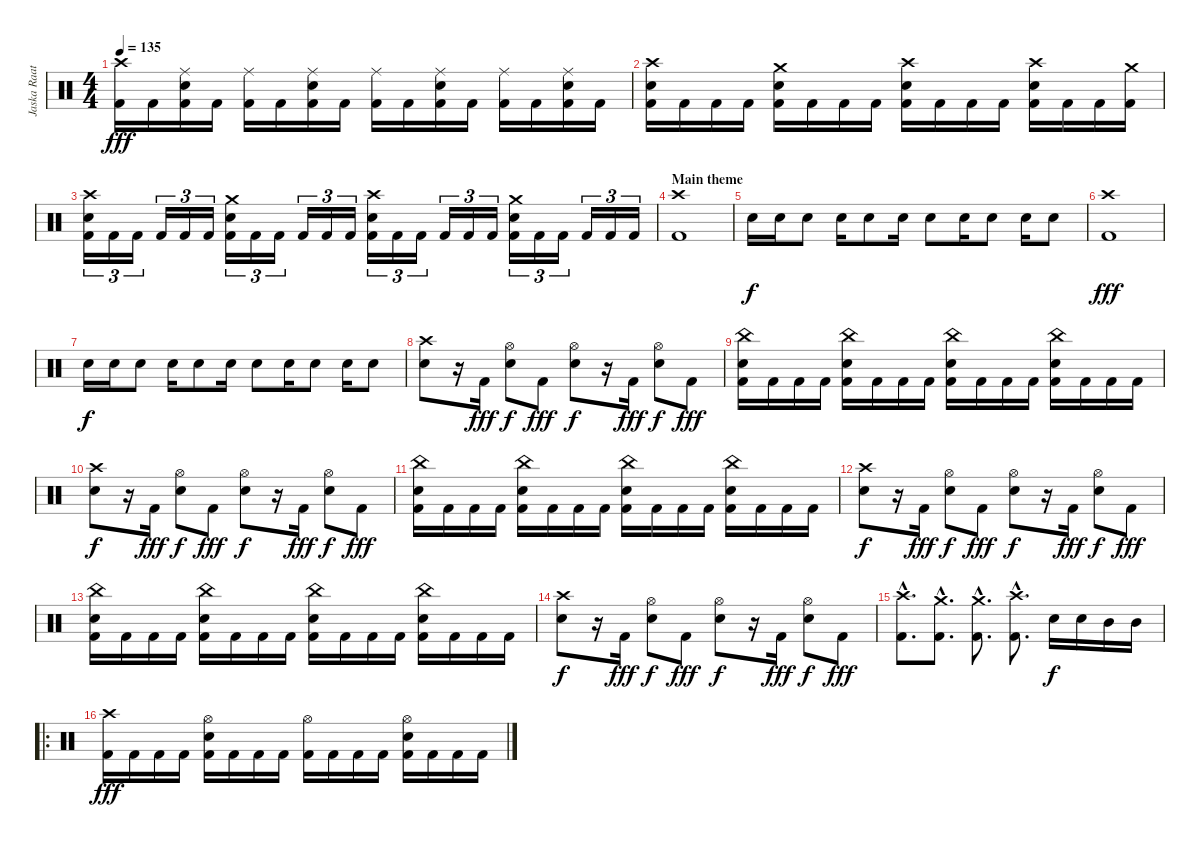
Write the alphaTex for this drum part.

\track ("Jaska Raatikainen" "Jaska Raat") {instrument percussion}
\staff {score}
\articulation defaults
\ts (4 4)
\tempo 135
\clef neutral
\ks c
("Crash high (hit)" "Kick (hit) 2").16{dy fff} "Kick (hit) 2".16 ("Ride (middle)" "Electric Snare (hit)" "Kick (hit) 2").16 "Kick (hit) 2".16 ("Ride (middle)" "Kick (hit) 2").16 "Kick (hit) 2".16 ("Ride (middle)" "Electric Snare (hit)" "Kick (hit) 2").16 "Kick (hit) 2".16 ("Ride (middle)" "Kick (hit) 2").16 "Kick (hit) 2".16 ("Ride (middle)" "Electric Snare (hit)" "Kick (hit) 2").16 "Kick (hit) 2".16 ("Ride (middle)" "Kick (hit) 2").16 "Kick (hit) 2".16 ("Ride (middle)" "Electric Snare (hit)" "Kick (hit) 2").16 "Kick (hit) 2".16 |
("Crash high (hit)" "Electric Snare (hit)" "Kick (hit) 2").16 "Kick (hit) 2".16 "Kick (hit) 2".16 "Kick (hit) 2".16 ("Crash medium (hit)" "Electric Snare (hit)" "Kick (hit) 2").16 "Kick (hit) 2".16 "Kick (hit) 2".16 "Kick (hit) 2".16 ("Crash high (hit)" "Electric Snare (hit)" "Kick (hit) 2").16 "Kick (hit) 2".16 "Kick (hit) 2".16 "Kick (hit) 2".16 ("Crash high (hit)" "Electric Snare (hit)" "Kick (hit) 2").16 "Kick (hit) 2".16 "Kick (hit) 2".16 ("Crash medium (hit)" "Kick (hit) 2").16 |
("Crash high (hit)" "Electric Snare (hit)" "Kick (hit) 2").16{tu (3 2)} "Kick (hit) 2".16{tu (3 2)} "Kick (hit) 2".16{tu (3 2)} "Kick (hit) 2".16{tu (3 2)} "Kick (hit) 2".16{tu (3 2)} "Kick (hit) 2".16{tu (3 2)} ("Crash medium (hit)" "Electric Snare (hit)" "Kick (hit) 2").16{tu (3 2)} "Kick (hit) 2".16{tu (3 2)} "Kick (hit) 2".16{tu (3 2)} "Kick (hit) 2".16{tu (3 2)} "Kick (hit) 2".16{tu (3 2)} "Kick (hit) 2".16{tu (3 2)} ("Crash high (hit)" "Electric Snare (hit)" "Kick (hit) 2").16{tu (3 2)} "Kick (hit) 2".16{tu (3 2)} "Kick (hit) 2".16{tu (3 2)} "Kick (hit) 2".16{tu (3 2)} "Kick (hit) 2".16{tu (3 2)} "Kick (hit) 2".16{tu (3 2)} ("Crash medium (hit)" "Electric Snare (hit)" "Kick (hit) 2").16{tu (3 2)} "Kick (hit) 2".16{tu (3 2)} "Kick (hit) 2".16{tu (3 2)} "Kick (hit) 2".16{tu (3 2)} "Kick (hit) 2".16{tu (3 2)} "Kick (hit) 2".16{tu (3 2)} |
\section ("" "Main theme")
("Crash high (hit)" "Kick (hit) 2").1 |
"Electric Snare (hit)".16{dy f} "Electric Snare (hit)".16 "Electric Snare (hit)".8 "Electric Snare (hit)".16 "Electric Snare (hit)".8 "Electric Snare (hit)".16 "Electric Snare (hit)".8 "Electric Snare (hit)".16 "Electric Snare (hit)".8 "Electric Snare (hit)".16 "Electric Snare (hit)".8 |
("Crash high (hit)" "Kick (hit) 2").1{dy fff} |
"Electric Snare (hit)".16{dy f} "Electric Snare (hit)".16 "Electric Snare (hit)".8 "Electric Snare (hit)".16 "Electric Snare (hit)".8 "Electric Snare (hit)".16 "Electric Snare (hit)".8 "Electric Snare (hit)".16 "Electric Snare (hit)".8 "Electric Snare (hit)".16 "Electric Snare (hit)".8 |
("Crash high (hit)" "Electric Snare (hit)").8 r.16 "Kick (hit) 2".16{dy fff} ("Hi-Hat (open)" "Electric Snare (hit)").8{dy f} "Kick (hit) 2".8{dy fff} ("Hi-Hat (open)" "Electric Snare (hit)").8{dy f} r.16 "Kick (hit) 2".16{dy fff} ("Hi-Hat (open)" "Electric Snare (hit)").8{dy f} "Kick (hit) 2".8{dy fff} |
("China (hit)" "Electric Snare (hit)" "Kick (hit) 2").16 "Kick (hit) 2".16 "Kick (hit) 2".16 "Kick (hit) 2".16 ("China (hit)" "Electric Snare (hit)" "Kick (hit) 2").16 "Kick (hit) 2".16 "Kick (hit) 2".16 "Kick (hit) 2".16 ("China (hit)" "Electric Snare (hit)" "Kick (hit) 2").16 "Kick (hit) 2".16 "Kick (hit) 2".16 "Kick (hit) 2".16 ("China (hit)" "Electric Snare (hit)" "Kick (hit) 2").16 "Kick (hit) 2".16 "Kick (hit) 2".16 "Kick (hit) 2".16 |
("Crash high (hit)" "Electric Snare (hit)").8{dy f} r.16 "Kick (hit) 2".16{dy fff} ("Hi-Hat (open)" "Electric Snare (hit)").8{dy f} "Kick (hit) 2".8{dy fff} ("Hi-Hat (open)" "Electric Snare (hit)").8{dy f} r.16 "Kick (hit) 2".16{dy fff} ("Hi-Hat (open)" "Electric Snare (hit)").8{dy f} "Kick (hit) 2".8{dy fff} |
("China (hit)" "Electric Snare (hit)" "Kick (hit) 2").16 "Kick (hit) 2".16 "Kick (hit) 2".16 "Kick (hit) 2".16 ("China (hit)" "Electric Snare (hit)" "Kick (hit) 2").16 "Kick (hit) 2".16 "Kick (hit) 2".16 "Kick (hit) 2".16 ("China (hit)" "Electric Snare (hit)" "Kick (hit) 2").16 "Kick (hit) 2".16 "Kick (hit) 2".16 "Kick (hit) 2".16 ("China (hit)" "Electric Snare (hit)" "Kick (hit) 2").16 "Kick (hit) 2".16 "Kick (hit) 2".16 "Kick (hit) 2".16 |
("Crash high (hit)" "Electric Snare (hit)").8{dy f} r.16 "Kick (hit) 2".16{dy fff} ("Hi-Hat (open)" "Electric Snare (hit)").8{dy f} "Kick (hit) 2".8{dy fff} ("Hi-Hat (open)" "Electric Snare (hit)").8{dy f} r.16 "Kick (hit) 2".16{dy fff} ("Hi-Hat (open)" "Electric Snare (hit)").8{dy f} "Kick (hit) 2".8{dy fff} |
("China (hit)" "Electric Snare (hit)" "Kick (hit) 2").16 "Kick (hit) 2".16 "Kick (hit) 2".16 "Kick (hit) 2".16 ("China (hit)" "Electric Snare (hit)" "Kick (hit) 2").16 "Kick (hit) 2".16 "Kick (hit) 2".16 "Kick (hit) 2".16 ("China (hit)" "Electric Snare (hit)" "Kick (hit) 2").16 "Kick (hit) 2".16 "Kick (hit) 2".16 "Kick (hit) 2".16 ("China (hit)" "Electric Snare (hit)" "Kick (hit) 2").16 "Kick (hit) 2".16 "Kick (hit) 2".16 "Kick (hit) 2".16 |
("Crash high (hit)" "Electric Snare (hit)").8{dy f} r.16 "Kick (hit) 2".16{dy fff} ("Hi-Hat (open)" "Electric Snare (hit)").8{dy f} "Kick (hit) 2".8{dy fff} ("Hi-Hat (open)" "Electric Snare (hit)").8{dy f} r.16 "Kick (hit) 2".16{dy fff} ("Hi-Hat (open)" "Electric Snare (hit)").8{dy f} "Kick (hit) 2".8{dy fff} |
("Crash high (hit)"{hac} "Kick (hit) 2"{hac}).8{d} ("Crash medium (hit)"{hac} "Kick (hit) 2"{hac}).8{d} ("Crash medium (hit)"{hac} "Kick (hit) 2"{hac}).8{d} ("Crash high (hit)"{hac} "Kick (hit) 2"{hac}).8{d} "Electric Snare (hit)".16{dy f} "Electric Snare (hit)".16 "Mid Tom (hit)".16 "Mid Tom (hit)".16 |
\ro
("Crash high (hit)" "Kick (hit) 2").16{dy fff} "Kick (hit) 2".16 "Kick (hit) 2".16 "Kick (hit) 2".16 ("Hi-Hat (open)" "Electric Snare (hit)" "Kick (hit) 2").16 "Kick (hit) 2".16 "Kick (hit) 2".16 "Kick (hit) 2".16 ("Hi-Hat (open)" "Kick (hit) 2").16 "Kick (hit) 2".16 "Kick (hit) 2".16 "Kick (hit) 2".16 ("Hi-Hat (open)" "Electric Snare (hit)" "Kick (hit) 2").16 "Kick (hit) 2".16 "Kick (hit) 2".16 "Kick (hit) 2".16
